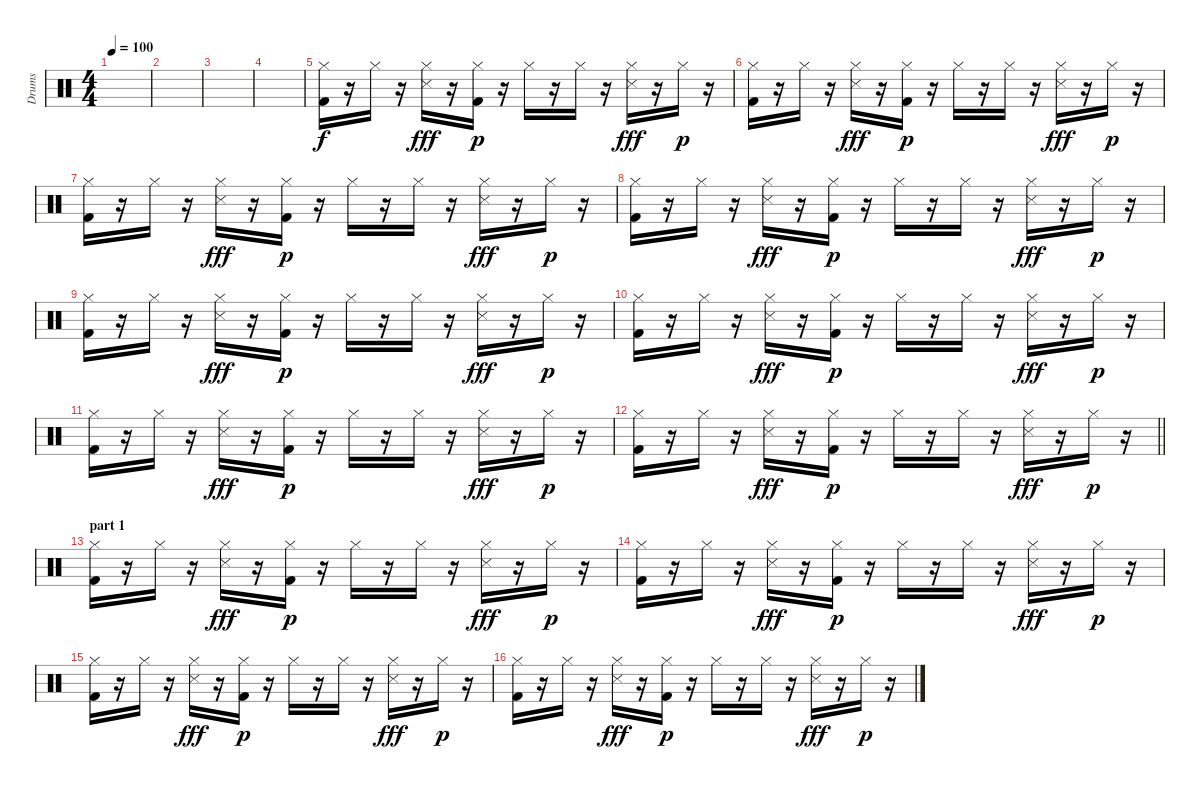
\track ("Drums" "Drums") {instrument percussion}
\staff {score}
\articulation defaults
\ts (4 4)
\tempo 100
\clef neutral
\ks c
|
|
|
|
("Hi-Hat (closed)" "Kick (hit) 2").16 r.16 "Hi-Hat (closed)".16 r.16 ("Hi-Hat (closed)" "Snare (side stick) 3").16{dy fff} r.16 ("Hi-Hat (closed)" "Kick (hit) 2").16{dy p} r.16 "Hi-Hat (closed)".16 r.16 "Hi-Hat (closed)".16 r.16 ("Hi-Hat (closed)" "Snare (side stick) 3").16{dy fff} r.16 "Hi-Hat (closed)".16{dy p} r.16 |
("Hi-Hat (closed)" "Kick (hit) 2").16 r.16 "Hi-Hat (closed)".16 r.16 ("Hi-Hat (closed)" "Snare (side stick) 3").16{dy fff} r.16 ("Hi-Hat (closed)" "Kick (hit) 2").16{dy p} r.16 "Hi-Hat (closed)".16 r.16 "Hi-Hat (closed)".16 r.16 ("Hi-Hat (closed)" "Snare (side stick) 3").16{dy fff} r.16 "Hi-Hat (closed)".16{dy p} r.16 |
("Hi-Hat (closed)" "Kick (hit) 2").16 r.16 "Hi-Hat (closed)".16 r.16 ("Hi-Hat (closed)" "Snare (side stick) 3").16{dy fff} r.16 ("Hi-Hat (closed)" "Kick (hit) 2").16{dy p} r.16 "Hi-Hat (closed)".16 r.16 "Hi-Hat (closed)".16 r.16 ("Hi-Hat (closed)" "Snare (side stick) 3").16{dy fff} r.16 "Hi-Hat (closed)".16{dy p} r.16 |
("Hi-Hat (closed)" "Kick (hit) 2").16 r.16 "Hi-Hat (closed)".16 r.16 ("Hi-Hat (closed)" "Snare (side stick) 3").16{dy fff} r.16 ("Hi-Hat (closed)" "Kick (hit) 2").16{dy p} r.16 "Hi-Hat (closed)".16 r.16 "Hi-Hat (closed)".16 r.16 ("Hi-Hat (closed)" "Snare (side stick) 3").16{dy fff} r.16 "Hi-Hat (closed)".16{dy p} r.16 |
("Hi-Hat (closed)" "Kick (hit) 2").16 r.16 "Hi-Hat (closed)".16 r.16 ("Hi-Hat (closed)" "Snare (side stick) 3").16{dy fff} r.16 ("Hi-Hat (closed)" "Kick (hit) 2").16{dy p} r.16 "Hi-Hat (closed)".16 r.16 "Hi-Hat (closed)".16 r.16 ("Hi-Hat (closed)" "Snare (side stick) 3").16{dy fff} r.16 "Hi-Hat (closed)".16{dy p} r.16 |
("Hi-Hat (closed)" "Kick (hit) 2").16 r.16 "Hi-Hat (closed)".16 r.16 ("Hi-Hat (closed)" "Snare (side stick) 3").16{dy fff} r.16 ("Hi-Hat (closed)" "Kick (hit) 2").16{dy p} r.16 "Hi-Hat (closed)".16 r.16 "Hi-Hat (closed)".16 r.16 ("Hi-Hat (closed)" "Snare (side stick) 3").16{dy fff} r.16 "Hi-Hat (closed)".16{dy p} r.16 |
("Hi-Hat (closed)" "Kick (hit) 2").16 r.16 "Hi-Hat (closed)".16 r.16 ("Hi-Hat (closed)" "Snare (side stick) 3").16{dy fff} r.16 ("Hi-Hat (closed)" "Kick (hit) 2").16{dy p} r.16 "Hi-Hat (closed)".16 r.16 "Hi-Hat (closed)".16 r.16 ("Hi-Hat (closed)" "Snare (side stick) 3").16{dy fff} r.16 "Hi-Hat (closed)".16{dy p} r.16 |
\barLineRight lightlight
("Hi-Hat (closed)" "Kick (hit) 2").16 r.16 "Hi-Hat (closed)".16 r.16 ("Hi-Hat (closed)" "Snare (side stick) 3").16{dy fff} r.16 ("Hi-Hat (closed)" "Kick (hit) 2").16{dy p} r.16 "Hi-Hat (closed)".16 r.16 "Hi-Hat (closed)".16 r.16 ("Hi-Hat (closed)" "Snare (side stick) 3").16{dy fff} r.16 "Hi-Hat (closed)".16{dy p} r.16 |
\section ("" "part 1")
("Hi-Hat (closed)" "Kick (hit) 2").16 r.16 "Hi-Hat (closed)".16 r.16 ("Hi-Hat (closed)" "Snare (side stick) 3").16{dy fff} r.16 ("Hi-Hat (closed)" "Kick (hit) 2").16{dy p} r.16 "Hi-Hat (closed)".16 r.16 "Hi-Hat (closed)".16 r.16 ("Hi-Hat (closed)" "Snare (side stick) 3").16{dy fff} r.16 "Hi-Hat (closed)".16{dy p} r.16 |
("Hi-Hat (closed)" "Kick (hit) 2").16 r.16 "Hi-Hat (closed)".16 r.16 ("Hi-Hat (closed)" "Snare (side stick) 3").16{dy fff} r.16 ("Hi-Hat (closed)" "Kick (hit) 2").16{dy p} r.16 "Hi-Hat (closed)".16 r.16 "Hi-Hat (closed)".16 r.16 ("Hi-Hat (closed)" "Snare (side stick) 3").16{dy fff} r.16 "Hi-Hat (closed)".16{dy p} r.16 |
("Hi-Hat (closed)" "Kick (hit) 2").16 r.16 "Hi-Hat (closed)".16 r.16 ("Hi-Hat (closed)" "Snare (side stick) 3").16{dy fff} r.16 ("Hi-Hat (closed)" "Kick (hit) 2").16{dy p} r.16 "Hi-Hat (closed)".16 r.16 "Hi-Hat (closed)".16 r.16 ("Hi-Hat (closed)" "Snare (side stick) 3").16{dy fff} r.16 "Hi-Hat (closed)".16{dy p} r.16 |
("Hi-Hat (closed)" "Kick (hit) 2").16 r.16 "Hi-Hat (closed)".16 r.16 ("Hi-Hat (closed)" "Snare (side stick) 3").16{dy fff} r.16 ("Hi-Hat (closed)" "Kick (hit) 2").16{dy p} r.16 "Hi-Hat (closed)".16 r.16 "Hi-Hat (closed)".16 r.16 ("Hi-Hat (closed)" "Snare (side stick) 3").16{dy fff} r.16 "Hi-Hat (closed)".16{dy p} r.16
